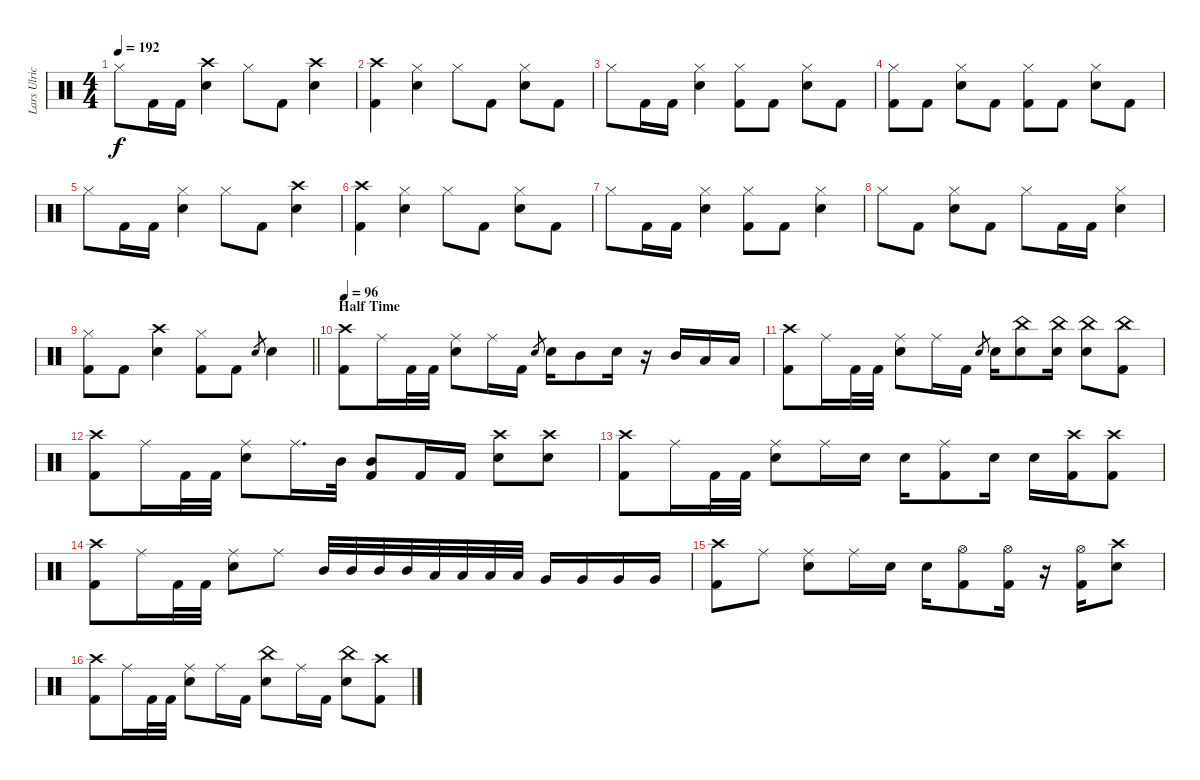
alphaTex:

\track ("Lars Ulrich - Drums" "Lars Ulric") {instrument percussion}
\staff {score}
\articulation defaults
\ts (4 4)
\tempo 192
\clef neutral
\ks c "Hi-Hat (closed)".8{dy f} "Kick (hit) 2".16 "Kick (hit) 2".16
("Crash high (hit)" "Snare (hit) 2").4 "Hi-Hat (closed)".8 "Kick (hit) 2".8 ("Crash high (hit)" "Snare (hit) 2").4 |
("Crash high (hit)" "Kick (hit) 2").4 ("Hi-Hat (closed)" "Snare (hit) 2").4 "Hi-Hat (closed)".8 "Kick (hit) 2".8 ("Hi-Hat (closed)" "Snare (hit) 2").8 "Kick (hit) 2".8 |
"Hi-Hat (closed)".8 "Kick (hit) 2".16 "Kick (hit) 2".16 ("Hi-Hat (closed)" "Snare (hit) 2").4 ("Hi-Hat (closed)" "Kick (hit) 2").8 "Kick (hit) 2".8 ("Hi-Hat (closed)" "Snare (hit) 2").8 "Kick (hit) 2".8 |
("Hi-Hat (closed)" "Kick (hit) 2").8 "Kick (hit) 2".8 ("Hi-Hat (closed)" "Snare (hit) 2").8 "Kick (hit) 2".8 ("Hi-Hat (closed)" "Kick (hit) 2").8 "Kick (hit) 2".8 ("Hi-Hat (closed)" "Snare (hit) 2").8 "Kick (hit) 2".8 |
"Hi-Hat (closed)".8 "Kick (hit) 2".16 "Kick (hit) 2".16 ("Hi-Hat (closed)" "Snare (hit) 2").4 "Hi-Hat (closed)".8 "Kick (hit) 2".8 ("Crash high (hit)" "Snare (hit) 2").4 |
("Crash high (hit)" "Kick (hit) 2").4 ("Hi-Hat (closed)" "Snare (hit) 2").4 "Hi-Hat (closed)".8 "Kick (hit) 2".8 ("Hi-Hat (closed)" "Snare (hit) 2").8 "Kick (hit) 2".8 |
"Hi-Hat (closed)".8 "Kick (hit) 2".16 "Kick (hit) 2".16 ("Hi-Hat (closed)" "Snare (hit) 2").4 ("Hi-Hat (closed)" "Kick (hit) 2").8 "Kick (hit) 2".8 ("Hi-Hat (closed)" "Snare (hit) 2").4 |
"Hi-Hat (closed)".8 "Kick (hit) 2".8 ("Hi-Hat (closed)" "Snare (hit) 2").8 "Kick (hit) 2".8 "Hi-Hat (closed)".8 "Kick (hit) 2".16 "Kick (hit) 2".16 ("Hi-Hat (closed)" "Snare (hit) 2").4 |
\barLineRight lightlight
("Hi-Hat (closed)" "Kick (hit) 2").8 "Kick (hit) 2".8 ("Crash high (hit)" "Snare (hit) 2").4 ("Hi-Hat (closed)" "Kick (hit) 2").8 "Kick (hit) 2".8 "Snare (hit) 2".8{gr} "Snare (hit) 2".4 |
\section ("" "Half Time")
\tempo 96
("Crash high (hit)" "Kick (hit) 2").8 "Ride (middle)".16 "Kick (hit) 2".32 "Kick (hit) 2".32 ("Ride (middle)" "Snare (hit) 2").8 "Ride (middle)".16 "Kick (hit) 2".16 "Snare (hit) 2".8{gr} "Snare (hit) 2".16 "Mid Tom (hit)".8 "Snare (hit) 2".16 r.16 "Mid Tom (hit)".16 "Low Tom (hit)".16 "Low Tom (hit)".16 |
("Crash high (hit)" "Kick (hit) 2").8 "Ride (middle)".16 "Kick (hit) 2".32 "Kick (hit) 2".32 ("Ride (middle)" "Snare (hit) 2").8 "Ride (middle)".16 "Kick (hit) 2".16 "Snare (hit) 2".8{gr} "Snare (hit) 2".16 ("China (hit)" "Snare (hit) 2").8 ("China (hit)" "Snare (hit) 2").16 ("China (hit)" "Snare (hit) 2").8 ("China (hit)" "Kick (hit) 2").8 |
("Crash high (hit)" "Kick (hit) 2").8 "Ride (middle)".16 "Kick (hit) 2".32 "Kick (hit) 2".32 ("Ride (middle)" "Snare (hit) 2").8 "Ride (middle)".16{d} "Mid Tom (hit)".32 ("Mid Tom (hit)" "Kick (hit) 2").8 "Kick (hit) 2".16 "Kick (hit) 2".16 ("Crash high (hit)" "Snare (hit) 2").8 ("Crash high (hit)" "Snare (hit) 2").8 |
("Crash high (hit)" "Kick (hit) 2").8 "Ride (middle)".16 "Kick (hit) 2".32 "Kick (hit) 2".32 ("Ride (middle)" "Snare (hit) 2").8 "Ride (middle)".16 "Snare (hit) 2".16 "Snare (hit) 2".16 ("Ride (middle)" "Kick (hit) 2").8 "Snare (hit) 2".16 "Snare (hit) 2".16 ("Crash high (hit)" "Kick (hit) 2").16 ("Crash high (hit)" "Kick (hit) 2").8 |
("Crash high (hit)" "Kick (hit) 2").8 "Ride (middle)".16 "Kick (hit) 2".32 "Kick (hit) 2".32 ("Ride (middle)" "Snare (hit) 2").8 "Ride (middle)".8 "Mid Tom (hit)".32 "Mid Tom (hit)".32 "Mid Tom (hit)".32 "Mid Tom (hit)".32 "Low Tom (hit)".32 "Low Tom (hit)".32 "Low Tom (hit)".32 "Low Tom (hit)".32 "Very Low Tom (hit)".16 "Very Low Tom (hit)".16 "Very Low Tom (hit)".16 "Very Low Tom (hit)".16 |
("Crash high (hit)" "Kick (hit) 2").8 "Ride (middle)".8 ("Ride (middle)" "Snare (hit) 2").8 "Ride (middle)".16 "Snare (hit) 2".16 "Snare (hit) 2".16 ("Hi-Hat (open)" "Kick (hit) 2").8 ("Hi-Hat (open)" "Kick (hit) 2").16 r.16 ("Hi-Hat (open)" "Kick (hit) 2").16 ("Crash high (hit)" "Snare (hit) 2").8 |
("Crash high (hit)" "Kick (hit) 2").8 "Ride (middle)".16 "Kick (hit) 2".32 "Kick (hit) 2".32 ("Ride (middle)" "Snare (hit) 2").8 "Ride (middle)".16 "Kick (hit) 2".16 ("China (hit)" "Snare (hit) 2").8 "Ride (middle)".16 "Kick (hit) 2".16 ("China (hit)" "Snare (hit) 2").8 ("Crash high (hit)" "Kick (hit) 2").8
